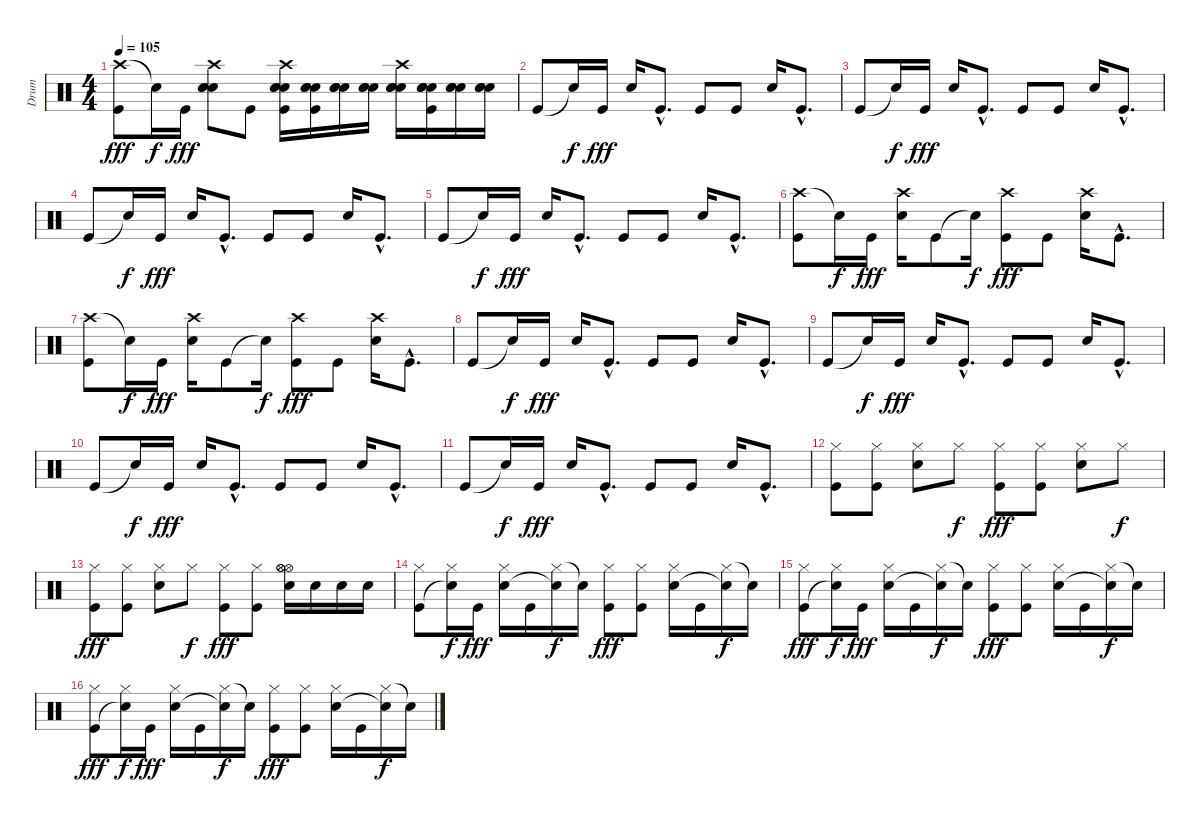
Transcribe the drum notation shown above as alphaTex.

\track ("Drum" "Drum") {instrument percussion}
\staff {score}
\articulation defaults
\ts (4 4)
\tempo 105
\clef neutral
\ks c
("Crash high (hit)" "Kick (hit)").8{dy fff} "Snare (hit)"{t}.16{dy f} "Kick (hit)".16{dy fff} ("Crash high (hit)" "Electric Snare (hit)" "Electric Snare (hit)" "Electric Snare (hit)").8 "Kick (hit)".8 ("Crash high (hit)" "Electric Snare (hit)" "Electric Snare (hit)" "Electric Snare (hit)" "Kick (hit)").16 ("Electric Snare (hit)" "Electric Snare (hit)" "Electric Snare (hit)" "Kick (hit)").16 ("Electric Snare (hit)" "Electric Snare (hit)" "Electric Snare (hit)").16 ("Electric Snare (hit)" "Electric Snare (hit)" "Electric Snare (hit)").16 ("Crash high (hit)" "Electric Snare (hit)" "Electric Snare (hit)" "Electric Snare (hit)").16 ("Electric Snare (hit)" "Electric Snare (hit)" "Electric Snare (hit)" "Kick (hit)").16 ("Electric Snare (hit)" "Electric Snare (hit)" "Electric Snare (hit)").16 ("Electric Snare (hit)" "Electric Snare (hit)" "Electric Snare (hit)").16 |
"Kick (hit)".8 "Snare (hit)"{t}.16{dy f} "Kick (hit)".16{dy fff} "Electric Snare (hit)".16 "Kick (hit)"{hac}.8{d} "Kick (hit)".8 "Kick (hit)".8 "Electric Snare (hit)".16 "Kick (hit)"{hac}.8{d} |
"Kick (hit)".8 "Snare (hit)"{t}.16{dy f} "Kick (hit)".16{dy fff} "Electric Snare (hit)".16 "Kick (hit)"{hac}.8{d} "Kick (hit)".8 "Kick (hit)".8 "Electric Snare (hit)".16 "Kick (hit)"{hac}.8{d} |
"Kick (hit)".8 "Snare (hit)"{t}.16{dy f} "Kick (hit)".16{dy fff} "Electric Snare (hit)".16 "Kick (hit)"{hac}.8{d} "Kick (hit)".8 "Kick (hit)".8 "Electric Snare (hit)".16 "Kick (hit)"{hac}.8{d} |
"Kick (hit)".8 "Snare (hit)"{t}.16{dy f} "Kick (hit)".16{dy fff} "Electric Snare (hit)".16 "Kick (hit)"{hac}.8{d} "Kick (hit)".8 "Kick (hit)".8 "Electric Snare (hit)".16 "Kick (hit)"{hac}.8{d} |
("Crash high (hit)" "Kick (hit)").8 "Snare (hit)"{t}.16{dy f} "Kick (hit)".16{dy fff} ("Crash high (hit)" "Electric Snare (hit)").16 "Kick (hit)".8 "Snare (hit)"{t}.16{dy f} ("Crash high (hit)" "Kick (hit)").8{dy fff} "Kick (hit)".8 ("Crash high (hit)" "Electric Snare (hit)").16 "Kick (hit)"{hac}.8{d} |
("Crash high (hit)" "Kick (hit)").8 "Snare (hit)"{t}.16{dy f} "Kick (hit)".16{dy fff} ("Crash high (hit)" "Electric Snare (hit)").16 "Kick (hit)".8 "Snare (hit)"{t}.16{dy f} ("Crash high (hit)" "Kick (hit)").8{dy fff} "Kick (hit)".8 ("Crash high (hit)" "Electric Snare (hit)").16 "Kick (hit)"{hac}.8{d} |
"Kick (hit)".8 "Snare (hit)"{t}.16{dy f} "Kick (hit)".16{dy fff} "Electric Snare (hit)".16 "Kick (hit)"{hac}.8{d} "Kick (hit)".8 "Kick (hit)".8 "Electric Snare (hit)".16 "Kick (hit)"{hac}.8{d} |
"Kick (hit)".8 "Snare (hit)"{t}.16{dy f} "Kick (hit)".16{dy fff} "Electric Snare (hit)".16 "Kick (hit)"{hac}.8{d} "Kick (hit)".8 "Kick (hit)".8 "Electric Snare (hit)".16 "Kick (hit)"{hac}.8{d} |
"Kick (hit)".8 "Snare (hit)"{t}.16{dy f} "Kick (hit)".16{dy fff} "Electric Snare (hit)".16 "Kick (hit)"{hac}.8{d} "Kick (hit)".8 "Kick (hit)".8 "Electric Snare (hit)".16 "Kick (hit)"{hac}.8{d} |
"Kick (hit)".8 "Snare (hit)"{t}.16{dy f} "Kick (hit)".16{dy fff} "Electric Snare (hit)".16 "Kick (hit)"{hac}.8{d} "Kick (hit)".8 "Kick (hit)".8 "Electric Snare (hit)".16 "Kick (hit)"{hac}.8{d} |
("Hi-Hat (closed)" "Kick (hit)").8 ("Hi-Hat (closed)" "Kick (hit)").8 ("Hi-Hat (closed)" "Electric Snare (hit)").8 "Hi-Hat (closed)".8{dy f} ("Hi-Hat (closed)" "Kick (hit)").8{dy fff} ("Hi-Hat (closed)" "Kick (hit)").8 ("Hi-Hat (closed)" "Electric Snare (hit)").8 "Hi-Hat (closed)".8{dy f} |
("Hi-Hat (closed)" "Kick (hit)").8{dy fff} ("Hi-Hat (closed)" "Kick (hit)").8 ("Hi-Hat (closed)" "Electric Snare (hit)").8 "Hi-Hat (closed)".8{dy f} ("Hi-Hat (closed)" "Kick (hit)").8{dy fff} ("Hi-Hat (closed)" "Kick (hit)").8 ("Hi-Hat (open)" "Hi-Hat (open)" "Hi-Hat (open)" "Electric Snare (hit)").16 "Electric Snare (hit)".16 "Electric Snare (hit)".16 "Electric Snare (hit)".16 |
("Hi-Hat (closed)" "Kick (hit)").8 ("Hi-Hat (closed)" "Snare (hit)"{t}).16{dy f} "Kick (hit)".16{dy fff} ("Hi-Hat (closed)" "Electric Snare (hit)").16 "Kick (hit)".16 ("Hi-Hat (closed)" "Snare (hit)"{t}).16{dy f} "Snare (hit)"{t}.16 ("Hi-Hat (closed)" "Kick (hit)").8{dy fff} ("Hi-Hat (closed)" "Kick (hit)").8 ("Hi-Hat (closed)" "Electric Snare (hit)").16 "Kick (hit)".16 ("Hi-Hat (closed)" "Snare (hit)"{t}).16{dy f} "Snare (hit)"{t}.16 |
("Hi-Hat (closed)" "Kick (hit)").8{dy fff} ("Hi-Hat (closed)" "Snare (hit)"{t}).16{dy f} "Kick (hit)".16{dy fff} ("Hi-Hat (closed)" "Electric Snare (hit)").16 "Kick (hit)".16 ("Hi-Hat (closed)" "Snare (hit)"{t}).16{dy f} "Snare (hit)"{t}.16 ("Hi-Hat (closed)" "Kick (hit)").8{dy fff} ("Hi-Hat (closed)" "Kick (hit)").8 ("Hi-Hat (closed)" "Electric Snare (hit)").16 "Kick (hit)".16 ("Hi-Hat (closed)" "Snare (hit)"{t}).16{dy f} "Snare (hit)"{t}.16 |
("Hi-Hat (closed)" "Kick (hit)").8{dy fff} ("Hi-Hat (closed)" "Snare (hit)"{t}).16{dy f} "Kick (hit)".16{dy fff} ("Hi-Hat (closed)" "Electric Snare (hit)").16 "Kick (hit)".16 ("Hi-Hat (closed)" "Snare (hit)"{t}).16{dy f} "Snare (hit)"{t}.16 ("Hi-Hat (closed)" "Kick (hit)").8{dy fff} ("Hi-Hat (closed)" "Kick (hit)").8 ("Hi-Hat (closed)" "Electric Snare (hit)").16 "Kick (hit)".16 ("Hi-Hat (closed)" "Snare (hit)"{t}).16{dy f} "Snare (hit)"{t}.16
